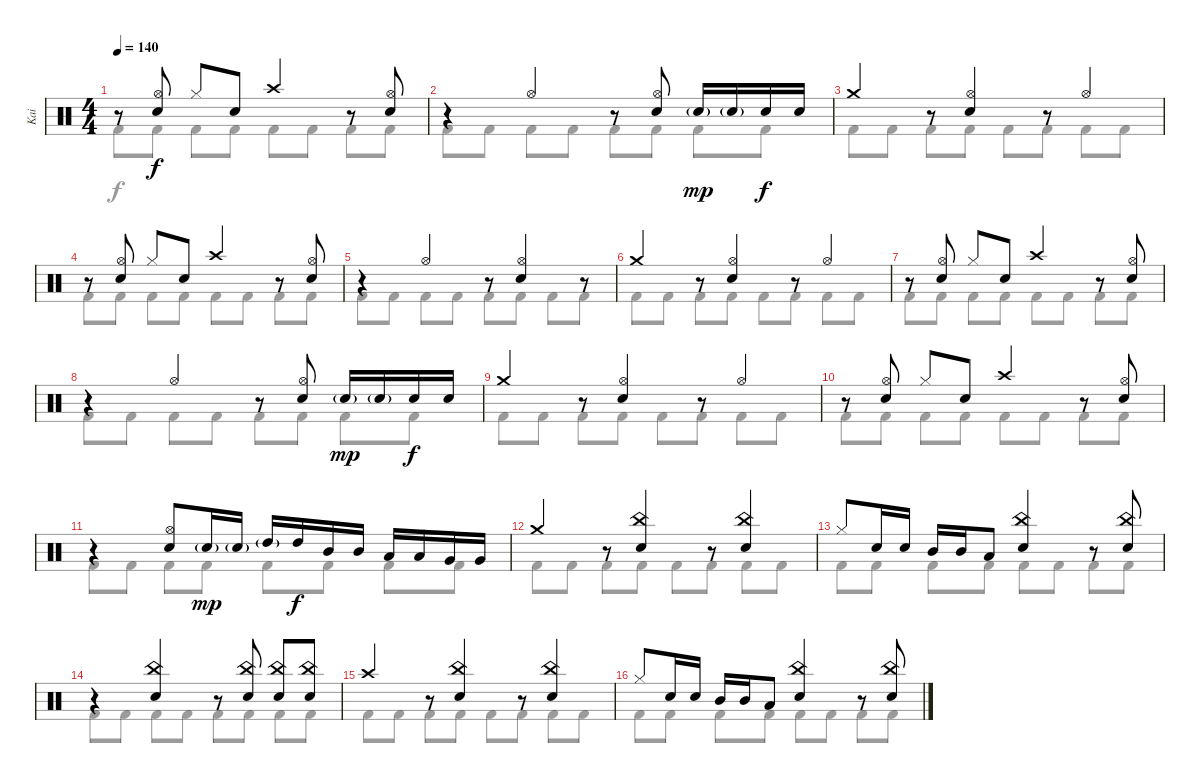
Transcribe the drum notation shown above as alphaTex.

\track ("Kai" "Kai") {instrument percussion}
\staff {score}
\articulation defaults
\voice
\ts (4 4)
\tempo 140
\clef neutral
\ks c
r.8{dy f} ("Hi-Hat (open)" "Snare (hit) 2").8 "Hi-Hat (closed)".8 "Snare (hit) 2".8 "Crash high (hit)".4 r.8 ("Hi-Hat (open)" "Snare (hit) 2").8 |
r.4 "Hi-Hat (open)".4 r.8 ("Hi-Hat (open)" "Snare (hit) 2").8 "Snare (hit) 2"{g}.16{dy mp} "Snare (hit) 2"{g}.16 "Snare (hit) 2".16{dy f} "Snare (hit) 2".16 |
"Crash medium (hit)".4 r.8 ("Hi-Hat (open)" "Snare (hit) 2").4 r.8 "Hi-Hat (open)".4 |
r.8 ("Hi-Hat (open)" "Snare (hit) 2").8 "Hi-Hat (closed)".8 "Snare (hit) 2".8 "Crash high (hit)".4 r.8 ("Hi-Hat (open)" "Snare (hit) 2").8 |
r.4 "Hi-Hat (open)".4 r.8 ("Hi-Hat (open)" "Snare (hit) 2").4 r.8 |
"Crash medium (hit)".4 r.8 ("Hi-Hat (open)" "Snare (hit) 2").4 r.8 "Hi-Hat (open)".4 |
r.8 ("Hi-Hat (open)" "Snare (hit) 2").8 "Hi-Hat (closed)".8 "Snare (hit) 2".8 "Crash high (hit)".4 r.8 ("Hi-Hat (open)" "Snare (hit) 2").8 |
r.4 "Hi-Hat (open)".4 r.8 ("Hi-Hat (open)" "Snare (hit) 2").8 "Snare (hit) 2"{g}.16{dy mp} "Snare (hit) 2"{g}.16 "Snare (hit) 2".16{dy f} "Snare (hit) 2".16 |
"Crash medium (hit)".4 r.8 ("Hi-Hat (open)" "Snare (hit) 2").4 r.8 "Hi-Hat (open)".4 |
r.8 ("Hi-Hat (open)" "Snare (hit) 2").8 "Hi-Hat (closed)".8 "Snare (hit) 2".8 "Crash high (hit)".4 r.8 ("Hi-Hat (open)" "Snare (hit) 2").8 |
r.4 ("Hi-Hat (open)" "Snare (hit) 2").8 "Snare (hit) 2"{g}.16{dy mp} "Snare (hit) 2"{g}.16 "High Tom (hit)"{g}.16 "High Tom (hit)".16{dy f} "Mid Tom (hit)".16 "Mid Tom (hit)".16 "Low Tom (hit)".16 "Low Tom (hit)".16 "Very Low Tom (hit)".16 "Very Low Tom (hit)".16 |
"Crash medium (hit)".4 r.8 ("China (hit)" "Snare (hit) 2").4 r.8 ("China (hit)" "Snare (hit) 2").4 |
"Hi-Hat (closed)".8 "Snare (hit) 2".16 "Snare (hit) 2".16 "Mid Tom (hit)".16 "Mid Tom (hit)".16 "Low Tom (hit)".8 ("China (hit)" "Snare (hit) 2").4 r.8 ("China (hit)" "Snare (hit) 2").8 |
r.4 ("China (hit)" "Snare (hit) 2").4 r.8 ("China (hit)" "Snare (hit) 2").8 ("China (hit)" "Snare (hit) 2").8 ("China (hit)" "Snare (hit) 2").8 |
"Crash high (hit)".4 r.8 ("China (hit)" "Snare (hit) 2").4 r.8 ("China (hit)" "Snare (hit) 2").4 |
"Hi-Hat (closed)".8 "Snare (hit) 2".16 "Snare (hit) 2".16 "Mid Tom (hit)".16 "Mid Tom (hit)".16 "Low Tom (hit)".8 ("China (hit)" "Snare (hit) 2").4 r.8 ("China (hit)" "Snare (hit) 2").8
\voice
\clef neutral
\ottava regular
\simile none
\ks c "Kick (hit) 2".8{dy f} "Kick (hit) 2".8 "Kick (hit) 2".8 "Kick (hit) 2".8 "Kick (hit) 2".8 "Kick (hit) 2".8 "Kick (hit) 2".8 "Kick (hit) 2".8
|
"Kick (hit) 2".8 "Kick (hit) 2".8 "Kick (hit) 2".8 "Kick (hit) 2".8 "Kick (hit) 2".8 "Kick (hit) 2".8 "Kick (hit) 2".8 "Kick (hit) 2".8 |
"Kick (hit) 2".8 "Kick (hit) 2".8 "Kick (hit) 2".8 "Kick (hit) 2".8 "Kick (hit) 2".8 "Kick (hit) 2".8 "Kick (hit) 2".8 "Kick (hit) 2".8 |
"Kick (hit) 2".8 "Kick (hit) 2".8 "Kick (hit) 2".8 "Kick (hit) 2".8 "Kick (hit) 2".8 "Kick (hit) 2".8 "Kick (hit) 2".8 "Kick (hit) 2".8 |
"Kick (hit) 2".8 "Kick (hit) 2".8 "Kick (hit) 2".8 "Kick (hit) 2".8 "Kick (hit) 2".8 "Kick (hit) 2".8 "Kick (hit) 2".8 "Kick (hit) 2".8 |
"Kick (hit) 2".8 "Kick (hit) 2".8 "Kick (hit) 2".8 "Kick (hit) 2".8 "Kick (hit) 2".8 "Kick (hit) 2".8 "Kick (hit) 2".8 "Kick (hit) 2".8 |
"Kick (hit) 2".8 "Kick (hit) 2".8 "Kick (hit) 2".8 "Kick (hit) 2".8 "Kick (hit) 2".8 "Kick (hit) 2".8 "Kick (hit) 2".8 "Kick (hit) 2".8 |
"Kick (hit) 2".8 "Kick (hit) 2".8 "Kick (hit) 2".8 "Kick (hit) 2".8 "Kick (hit) 2".8 "Kick (hit) 2".8 "Kick (hit) 2".8 "Kick (hit) 2".8 |
"Kick (hit) 2".8 "Kick (hit) 2".8 "Kick (hit) 2".8 "Kick (hit) 2".8 "Kick (hit) 2".8 "Kick (hit) 2".8 "Kick (hit) 2".8 "Kick (hit) 2".8 |
"Kick (hit) 2".8 "Kick (hit) 2".8 "Kick (hit) 2".8 "Kick (hit) 2".8 "Kick (hit) 2".8 "Kick (hit) 2".8 "Kick (hit) 2".8 "Kick (hit) 2".8 |
"Kick (hit) 2".8 "Kick (hit) 2".8 "Kick (hit) 2".8 "Kick (hit) 2".8 "Kick (hit) 2".8 "Kick (hit) 2".8 "Kick (hit) 2".8 "Kick (hit) 2".8 |
"Kick (hit) 2".8 "Kick (hit) 2".8 "Kick (hit) 2".8 "Kick (hit) 2".8 "Kick (hit) 2".8 "Kick (hit) 2".8 "Kick (hit) 2".8 "Kick (hit) 2".8 |
"Kick (hit) 2".8 "Kick (hit) 2".8 "Kick (hit) 2".8 "Kick (hit) 2".8 "Kick (hit) 2".8 "Kick (hit) 2".8 "Kick (hit) 2".8 "Kick (hit) 2".8 |
"Kick (hit) 2".8 "Kick (hit) 2".8 "Kick (hit) 2".8 "Kick (hit) 2".8 "Kick (hit) 2".8 "Kick (hit) 2".8 "Kick (hit) 2".8 "Kick (hit) 2".8 |
"Kick (hit) 2".8 "Kick (hit) 2".8 "Kick (hit) 2".8 "Kick (hit) 2".8 "Kick (hit) 2".8 "Kick (hit) 2".8 "Kick (hit) 2".8 "Kick (hit) 2".8 |
"Kick (hit) 2".8 "Kick (hit) 2".8 "Kick (hit) 2".8 "Kick (hit) 2".8 "Kick (hit) 2".8 "Kick (hit) 2".8 "Kick (hit) 2".8 "Kick (hit) 2".8
